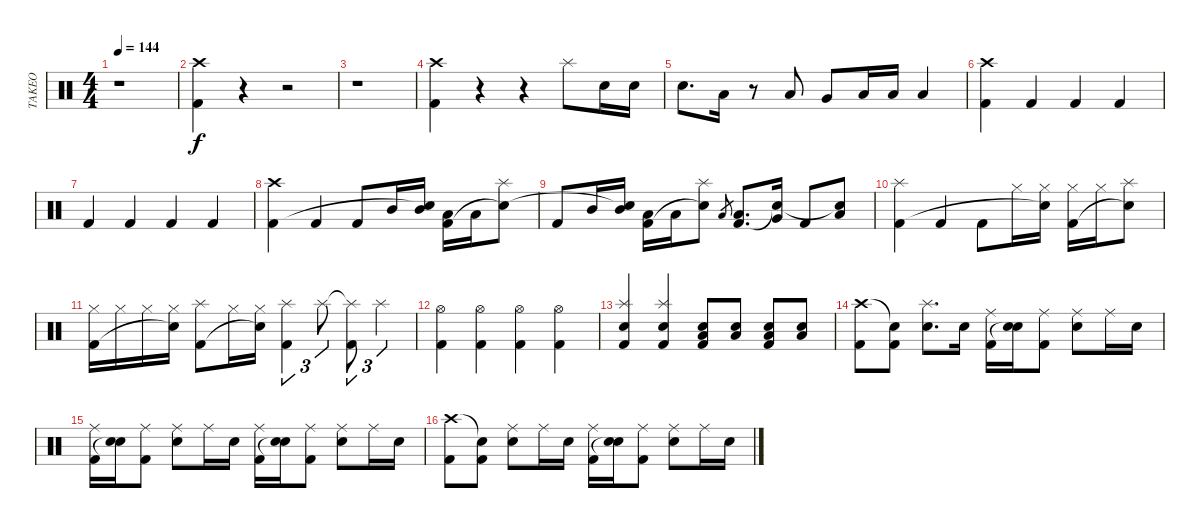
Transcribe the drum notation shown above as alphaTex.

\track ("TAKEO" "TAKEO") {instrument percussion}
\staff {score}
\articulation defaults
\ts (4 4)
\tempo 144
\clef neutral
\ks c
r.1{dy f} |
("Crash high (hit)" "Kick (hit) 2").4 r.4 r.2 |
r.1 |
("Crash high (hit)" "Kick (hit) 2").4 r.4 r.4 "Splash (hit)".8 "Electric Snare (hit)".16 "Electric Snare (hit)".16 |
"Electric Snare (hit)".8{d} "Low Tom (hit)".16 r.8 "Low Tom (hit)".8 "Very Low Tom (hit)".8 "Low Floor Tom (hit)".16 "Low Floor Tom (hit)".16 "Low Floor Tom (hit)".4 |
("Crash high (hit)" "Kick (hit) 2").4 "Kick (hit) 2".4 "Kick (hit) 2".4 "Kick (hit) 2".4 |
"Kick (hit) 2".4 "Kick (hit) 2".4 "Kick (hit) 2".4 "Kick (hit) 2".4 |
("Crash high (hit)" "Kick (hit) 2").4 "Kick (hit) 2".4 "Kick (hit) 2".8 "Mid Tom (hit)".16 ("Mid Tom (hit)" "Snare (hit)"{t}).16 ("Low Tom (hit)" "Kick (hit) 2").16 "Low Tom (hit)".16 ("Splash (hit)" "Snare (hit)"{t}).8 |
"Kick (hit) 2".8 "Mid Tom (hit)".16 ("Mid Tom (hit)" "Snare (hit)"{t}).16 ("Low Tom (hit)" "Kick (hit) 2").16 "Low Tom (hit)".16 ("Splash (hit)" "Snare (hit)"{t}).8 "Low Tom (hit)".8{gr} ("Low Tom (hit)" "Kick (hit) 2").8{d} ("Very Low Tom (hit)" "Snare (hit)"{t}).16 "Kick (hit) 2".8 ("Low Floor Tom (hit)" "Snare (hit)"{t}).8 |
("Splash (hit)" "Kick (hit) 2").4 "Kick (hit) 2".4 "Kick (hit) 2".8 "Hi-Hat (closed)".16 ("Hi-Hat (closed)" "Snare (hit)"{t}).16 ("Hi-Hat (closed)" "Kick (hit) 2").16 "Hi-Hat (closed)".16 ("Splash (hit)" "Snare (hit)"{t}).8 |
("Hi-Hat (closed)" "Kick (hit) 2").16 "Hi-Hat (closed)".16 "Hi-Hat (closed)".16 ("Hi-Hat (closed)" "Snare (hit)"{t}).16 ("Splash (hit)" "Kick (hit) 2").8 "Hi-Hat (closed)".16 ("Hi-Hat (closed)" "Snare (hit)"{t}).16 ("Splash (hit)" "Kick (hit) 2").4{tu (3 2)} "Splash (hit)".8{tu (3 2)} ("Splash (hit)"{t} "Kick (hit) 2").8{tu (3 2)} "Splash (hit)".4{tu (3 2)} |
("Hi-Hat (open)" "Kick (hit) 2").4 ("Hi-Hat (open)" "Kick (hit) 2").4 ("Hi-Hat (open)" "Kick (hit) 2").4 ("Hi-Hat (open)" "Kick (hit) 2").4 |
("Splash (hit)" "Electric Snare (hit)" "Kick (hit) 2").4 ("Splash (hit)" "Electric Snare (hit)" "Kick (hit) 2").4 ("Electric Snare (hit)" "Low Floor Tom (hit)" "Kick (hit) 2").8 ("Electric Snare (hit)" "Low Floor Tom (hit)").8 ("Low Floor Tom (hit)" "Electric Snare (hit)" "Kick (hit) 2").8 ("Electric Snare (hit)" "Low Floor Tom (hit)").8 |
("Crash high (hit)" "Kick (hit) 2").8 ("Snare (hit)"{t} "Kick (hit) 2").8 ("Splash (hit)" "Electric Snare (hit)").8{d} "Electric Snare (hit)".16 ("Ride (middle)" "Kick (hit) 2").16 ("Electric Snare (hit)" "Snare (hit)"{t}).16 ("Ride (middle)" "Kick (hit) 2").8 ("Ride (middle)" "Electric Snare (hit)").8 "Ride (middle)".16 "Electric Snare (hit)".16 |
("Ride (middle)" "Kick (hit) 2").16 ("Electric Snare (hit)" "Snare (hit)"{t}).16 ("Ride (middle)" "Kick (hit) 2").8 ("Ride (middle)" "Electric Snare (hit)").8 "Ride (middle)".16 "Electric Snare (hit)".16 ("Ride (middle)" "Kick (hit) 2").16 ("Electric Snare (hit)" "Snare (hit)"{t}).16 ("Ride (middle)" "Kick (hit) 2").8 ("Ride (middle)" "Electric Snare (hit)").8 "Ride (middle)".16 "Electric Snare (hit)".16 |
("Crash high (hit)" "Kick (hit) 2").8 ("Snare (hit)"{t} "Kick (hit) 2").8 ("Ride (middle)" "Electric Snare (hit)").8 "Ride (middle)".16 "Electric Snare (hit)".16 ("Ride (middle)" "Kick (hit) 2").16 ("Electric Snare (hit)" "Snare (hit)"{t}).16 ("Ride (middle)" "Kick (hit) 2").8 ("Ride (middle)" "Electric Snare (hit)").8 "Ride (middle)".16 "Electric Snare (hit)".16
